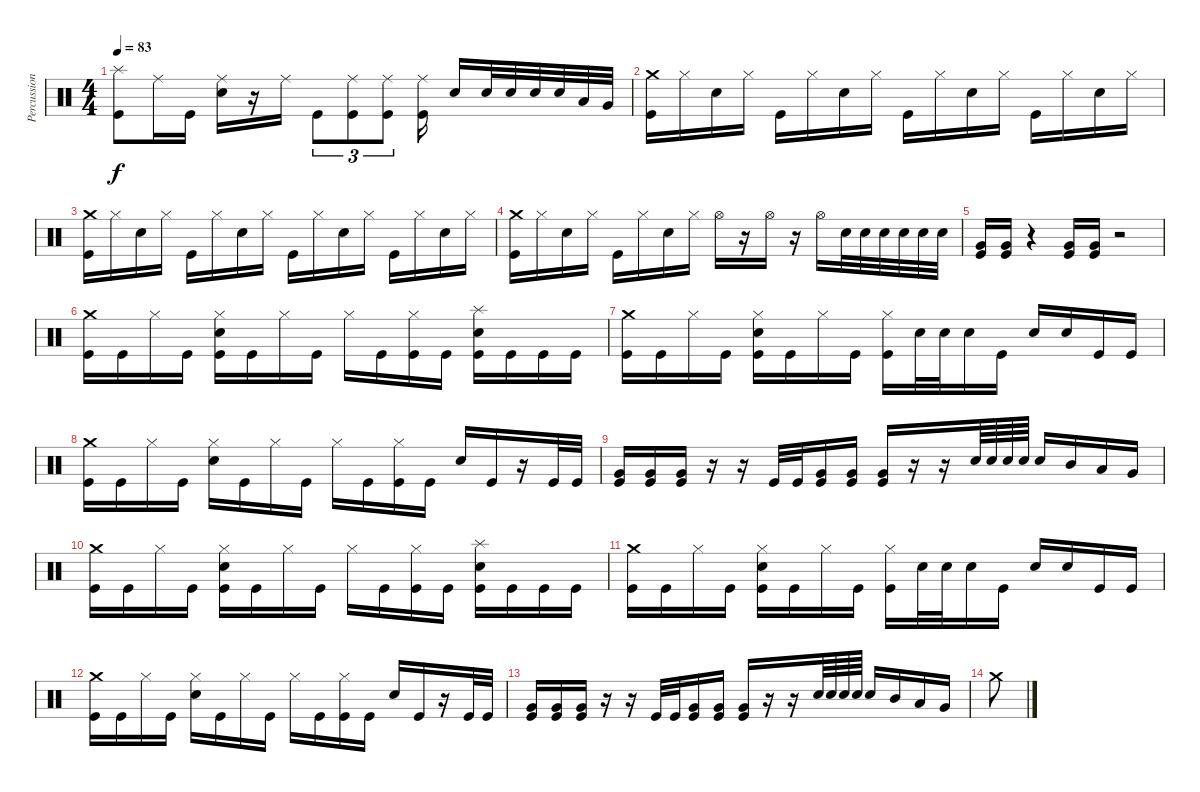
\track ("Percussion" "Percussion") {instrument percussion}
\staff {score}
\articulation defaults
\ts (4 4)
\tempo 83
\clef neutral
\ks c
("Splash (hit)" "Kick (hit)").8{dy f} "Ride (middle)".16 "Kick (hit)".16 ("Ride (middle)" "Snare (hit) 2").16 r.16 "Ride (middle)".16 "Kick (hit)".8{tu (3 2)} ("Ride (middle)" "Kick (hit)").8{tu (3 2)} ("Ride (middle)" "Kick (hit)").8{tu (3 2)} ("Ride (middle)" "Kick (hit)").16 "Snare (hit) 2".16 "Snare (hit) 2".32 "Snare (hit) 2".32 "Snare (hit) 2".32 "Snare (hit) 2".32 "Low Tom (hit)".32 "Very Low Tom (hit)".32 |
("Crash medium (hit)" "Kick (hit)").16 "Hi-Hat (closed)".16 "Snare (hit) 2".16 "Hi-Hat (closed)".16 "Kick (hit)".16 "Hi-Hat (closed)".16 "Snare (hit) 2".16 "Hi-Hat (closed)".16 "Kick (hit)".16 "Hi-Hat (closed)".16 "Snare (hit) 2".16 "Hi-Hat (closed)".16 "Kick (hit)".16 "Hi-Hat (closed)".16 "Snare (hit) 2".16 "Hi-Hat (closed)".16 |
("Crash medium (hit)" "Kick (hit)").16 "Hi-Hat (closed)".16 "Snare (hit) 2".16 "Hi-Hat (closed)".16 "Kick (hit)".16 "Hi-Hat (closed)".16 "Snare (hit) 2".16 "Hi-Hat (closed)".16 "Kick (hit)".16 "Hi-Hat (closed)".16 "Snare (hit) 2".16 "Hi-Hat (closed)".16 "Kick (hit)".16 "Hi-Hat (closed)".16 "Snare (hit) 2".16 "Hi-Hat (closed)".16 |
("Crash medium (hit)" "Kick (hit)").16 "Hi-Hat (closed)".16 "Snare (hit) 2".16 "Hi-Hat (closed)".16 "Kick (hit)".16 "Hi-Hat (closed)".16 "Snare (hit) 2".16 "Hi-Hat (closed)".16 "Hi-Hat (open)".16 r.16 "Hi-Hat (open)".16 r.16 "Hi-Hat (open)".16 "Snare (hit) 2".32 "Snare (hit) 2".32 "Snare (hit) 2".32 "Snare (hit) 2".32 "Snare (hit) 2".32 "Snare (hit) 2".32 |
("Very Low Tom (hit)" "Kick (hit)").16 ("Very Low Tom (hit)" "Kick (hit)").16 r.4 ("Very Low Tom (hit)" "Kick (hit)").16 ("Very Low Tom (hit)" "Kick (hit)").16 r.2 |
("Crash medium (hit)" "Kick (hit)").16 "Kick (hit)".16 "Hi-Hat (closed)".16 "Kick (hit)".16 ("Hi-Hat (closed)" "Snare (hit) 2" "Kick (hit)").16 "Kick (hit)".16 "Hi-Hat (closed)".16 "Kick (hit)".16 "Hi-Hat (closed)".16 "Kick (hit)".16 ("Hi-Hat (closed)" "Kick (hit)").16 "Kick (hit)".16 ("Splash (hit)" "Snare (hit) 2" "Kick (hit)").16 "Kick (hit)".16 "Kick (hit)".16 "Kick (hit)".16 |
("Crash medium (hit)" "Kick (hit)").16 "Kick (hit)".16 "Hi-Hat (closed)".16 "Kick (hit)".16 ("Hi-Hat (closed)" "Snare (hit) 2" "Kick (hit)").16 "Kick (hit)".16 "Hi-Hat (closed)".16 "Kick (hit)".16 ("Hi-Hat (closed)" "Kick (hit)").16 "Snare (hit) 2".32 "Snare (hit) 2".32 "Snare (hit) 2".16 "Kick (hit)".16 "Snare (hit) 2".16 "Snare (hit) 2".16 "Kick (hit)".16 "Kick (hit)".16 |
("Crash medium (hit)" "Kick (hit)").16 "Kick (hit)".16 "Hi-Hat (closed)".16 "Kick (hit)".16 ("Hi-Hat (closed)" "Snare (hit) 2").16 "Kick (hit)".16 "Hi-Hat (closed)".16 "Kick (hit)".16 "Hi-Hat (closed)".16 "Kick (hit)".16 ("Hi-Hat (closed)" "Kick (hit)").16 "Kick (hit)".16 "Snare (hit) 2".16 "Kick (hit)".16 r.16 "Kick (hit)".32 "Kick (hit)".32 |
("Very Low Tom (hit)" "Kick (hit)").16 ("Very Low Tom (hit)" "Kick (hit)").16 ("Very Low Tom (hit)" "Kick (hit)").16 r.16 r.16 "Kick (hit)".32 "Kick (hit)".32 ("Very Low Tom (hit)" "Kick (hit)").16 ("Very Low Tom (hit)" "Kick (hit)").16 ("Very Low Tom (hit)" "Kick (hit)").16 r.16 r.16 "Snare (hit) 2".64 "Snare (hit) 2".64 "Snare (hit) 2".64 "Snare (hit) 2".64 "Snare (hit) 2".16 "Mid Tom (hit)".16 "Low Tom (hit)".16 "Very Low Tom (hit)".16 |
("Crash medium (hit)" "Kick (hit)").16 "Kick (hit)".16 "Hi-Hat (closed)".16 "Kick (hit)".16 ("Hi-Hat (closed)" "Snare (hit) 2" "Kick (hit)").16 "Kick (hit)".16 "Hi-Hat (closed)".16 "Kick (hit)".16 "Hi-Hat (closed)".16 "Kick (hit)".16 ("Hi-Hat (closed)" "Kick (hit)").16 "Kick (hit)".16 ("Splash (hit)" "Snare (hit) 2" "Kick (hit)").16 "Kick (hit)".16 "Kick (hit)".16 "Kick (hit)".16 |
("Crash medium (hit)" "Kick (hit)").16 "Kick (hit)".16 "Hi-Hat (closed)".16 "Kick (hit)".16 ("Hi-Hat (closed)" "Snare (hit) 2" "Kick (hit)").16 "Kick (hit)".16 "Hi-Hat (closed)".16 "Kick (hit)".16 ("Hi-Hat (closed)" "Kick (hit)").16 "Snare (hit) 2".32 "Snare (hit) 2".32 "Snare (hit) 2".16 "Kick (hit)".16 "Snare (hit) 2".16 "Snare (hit) 2".16 "Kick (hit)".16 "Kick (hit)".16 |
("Crash medium (hit)" "Kick (hit)").16 "Kick (hit)".16 "Hi-Hat (closed)".16 "Kick (hit)".16 ("Hi-Hat (closed)" "Snare (hit) 2").16 "Kick (hit)".16 "Hi-Hat (closed)".16 "Kick (hit)".16 "Hi-Hat (closed)".16 "Kick (hit)".16 ("Hi-Hat (closed)" "Kick (hit)").16 "Kick (hit)".16 "Snare (hit) 2".16 "Kick (hit)".16 r.16 "Kick (hit)".32 "Kick (hit)".32 |
("Very Low Tom (hit)" "Kick (hit)").16 ("Very Low Tom (hit)" "Kick (hit)").16 ("Very Low Tom (hit)" "Kick (hit)").16 r.16 r.16 "Kick (hit)".32 "Kick (hit)".32 ("Very Low Tom (hit)" "Kick (hit)").16 ("Very Low Tom (hit)" "Kick (hit)").16 ("Very Low Tom (hit)" "Kick (hit)").16 r.16 r.16 "Snare (hit) 2".64 "Snare (hit) 2".64 "Snare (hit) 2".64 "Snare (hit) 2".64 "Snare (hit) 2".16 "Mid Tom (hit)".16 "Low Tom (hit)".16 "Very Low Tom (hit)".16 |
"Crash medium (hit)".8
